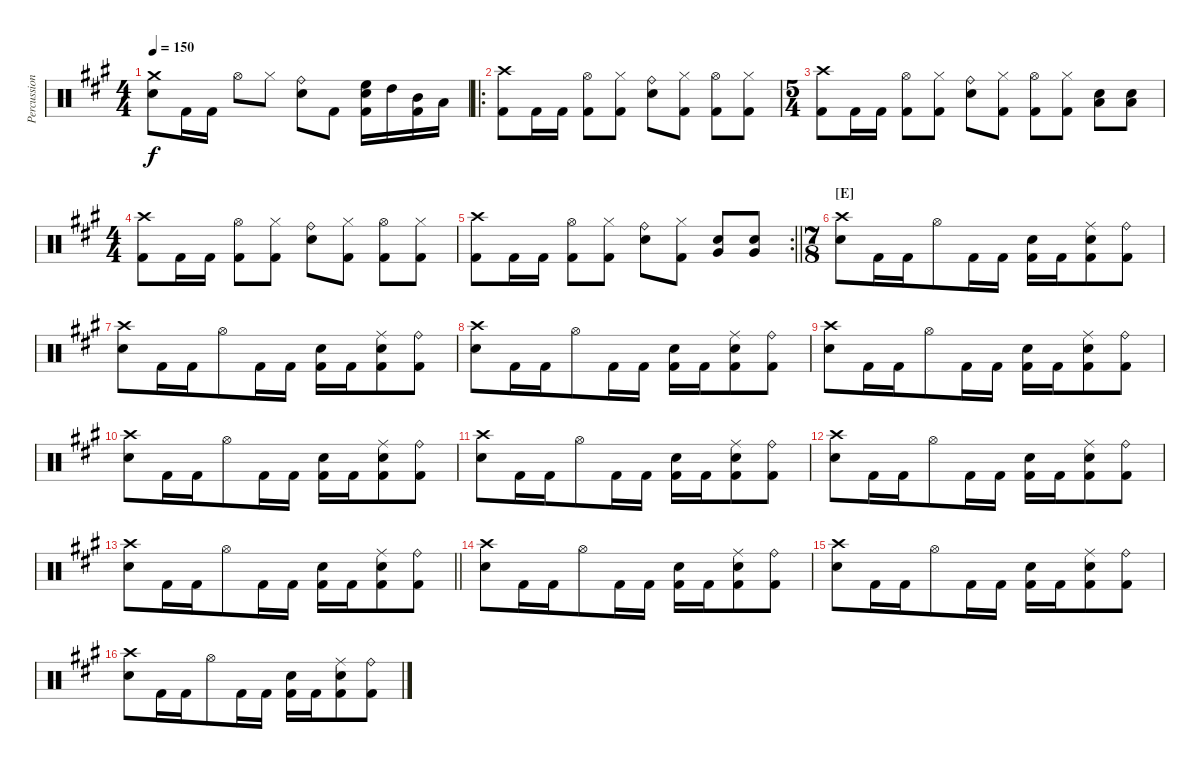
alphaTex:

\track ("Percussion" "Percussion") {instrument percussion}
\staff {score}
\articulation defaults
\ts (4 4)
\tempo 150
\clef neutral
\ks f#minor
("Crash medium (hit)" "Snare (hit) 2").8{dy f} "Kick (hit) 2".16 "Kick (hit) 2".16 "Hi-Hat (open)".8 "Hi-Hat (closed)".8 ("Ride (bell)" "Snare (hit) 2").8 "Kick (hit) 2".8 ("High Floor Tom (hit)" "Snare (hit) 2" "Kick (hit) 2").16 "High Tom (hit)".16 ("Mid Tom (hit)" "Kick (hit) 2").16 "Low Tom (hit)".16 |
\ro
("Crash high (hit)" "Kick (hit) 2").8 "Kick (hit) 2".16 "Kick (hit) 2".16 ("Hi-Hat (open)" "Kick (hit) 2").8 ("Hi-Hat (closed)" "Kick (hit) 2").8 ("Ride (bell)" "Snare (hit) 2").8 ("Hi-Hat (closed)" "Kick (hit) 2").8 ("Hi-Hat (open)" "Kick (hit) 2").8 ("Hi-Hat (closed)" "Kick (hit) 2").8 |
\ts (5 4)
("Crash high (hit)" "Kick (hit) 2").8 "Kick (hit) 2".16 "Kick (hit) 2".16 ("Hi-Hat (open)" "Kick (hit) 2").8 ("Hi-Hat (closed)" "Kick (hit) 2").8 ("Ride (bell)" "Snare (hit) 2").8 ("Hi-Hat (closed)" "Kick (hit) 2").8 ("Hi-Hat (open)" "Kick (hit) 2").8 ("Hi-Hat (closed)" "Kick (hit) 2").8 ("Snare (hit) 2" "Low Floor Tom (hit)").8 ("Snare (hit) 2" "Low Floor Tom (hit)").8 |
\ts (4 4)
("Crash high (hit)" "Kick (hit) 2").8 "Kick (hit) 2".16 "Kick (hit) 2".16 ("Hi-Hat (open)" "Kick (hit) 2").8 ("Hi-Hat (closed)" "Kick (hit) 2").8 ("Ride (bell)" "Snare (hit) 2").8 ("Hi-Hat (closed)" "Kick (hit) 2").8 ("Hi-Hat (open)" "Kick (hit) 2").8 ("Hi-Hat (closed)" "Kick (hit) 2").8 |
\rc 2
\barLineRight lightlight
("Crash high (hit)" "Kick (hit) 2").8 "Kick (hit) 2".16 "Kick (hit) 2".16 ("Hi-Hat (open)" "Kick (hit) 2").8 ("Hi-Hat (closed)" "Kick (hit) 2").8 ("Ride (bell)" "Snare (hit) 2").8 ("Hi-Hat (closed)" "Kick (hit) 2").8 ("Snare (hit) 2" "Very Low Tom (hit)").8 ("Snare (hit) 2" "Very Low Tom (hit)").8 |
\ts (7 8)
\section ("" "[E]")
("Crash high (hit)" "Snare (hit) 2").8 "Kick (hit) 2".16 "Kick (hit) 2".16 "Hi-Hat (open)".8 "Kick (hit) 2".16 "Kick (hit) 2".16 ("Snare (hit) 2" "Kick (hit) 2").16 "Kick (hit) 2".16 ("Ride (middle)" "Snare (hit) 2" "Kick (hit) 2").8 ("Ride (bell)" "Kick (hit) 2").8 |
("Crash high (hit)" "Snare (hit) 2").8 "Kick (hit) 2".16 "Kick (hit) 2".16 "Hi-Hat (open)".8 "Kick (hit) 2".16 "Kick (hit) 2".16 ("Snare (hit) 2" "Kick (hit) 2").16 "Kick (hit) 2".16 ("Ride (middle)" "Snare (hit) 2" "Kick (hit) 2").8 ("Ride (bell)" "Kick (hit) 2").8 |
("Crash high (hit)" "Snare (hit) 2").8 "Kick (hit) 2".16 "Kick (hit) 2".16 "Hi-Hat (open)".8 "Kick (hit) 2".16 "Kick (hit) 2".16 ("Snare (hit) 2" "Kick (hit) 2").16 "Kick (hit) 2".16 ("Ride (middle)" "Snare (hit) 2" "Kick (hit) 2").8 ("Ride (bell)" "Kick (hit) 2").8 |
("Crash high (hit)" "Snare (hit) 2").8 "Kick (hit) 2".16 "Kick (hit) 2".16 "Hi-Hat (open)".8 "Kick (hit) 2".16 "Kick (hit) 2".16 ("Snare (hit) 2" "Kick (hit) 2").16 "Kick (hit) 2".16 ("Ride (middle)" "Snare (hit) 2" "Kick (hit) 2").8 ("Ride (bell)" "Kick (hit) 2").8 |
("Crash high (hit)" "Snare (hit) 2").8 "Kick (hit) 2".16 "Kick (hit) 2".16 "Hi-Hat (open)".8 "Kick (hit) 2".16 "Kick (hit) 2".16 ("Snare (hit) 2" "Kick (hit) 2").16 "Kick (hit) 2".16 ("Ride (middle)" "Snare (hit) 2" "Kick (hit) 2").8 ("Ride (bell)" "Kick (hit) 2").8 |
("Crash high (hit)" "Snare (hit) 2").8 "Kick (hit) 2".16 "Kick (hit) 2".16 "Hi-Hat (open)".8 "Kick (hit) 2".16 "Kick (hit) 2".16 ("Snare (hit) 2" "Kick (hit) 2").16 "Kick (hit) 2".16 ("Ride (middle)" "Snare (hit) 2" "Kick (hit) 2").8 ("Ride (bell)" "Kick (hit) 2").8 |
("Crash high (hit)" "Snare (hit) 2").8 "Kick (hit) 2".16 "Kick (hit) 2".16 "Hi-Hat (open)".8 "Kick (hit) 2".16 "Kick (hit) 2".16 ("Snare (hit) 2" "Kick (hit) 2").16 "Kick (hit) 2".16 ("Ride (middle)" "Snare (hit) 2" "Kick (hit) 2").8 ("Ride (bell)" "Kick (hit) 2").8 |
\barLineRight lightlight
("Crash high (hit)" "Snare (hit) 2").8 "Kick (hit) 2".16 "Kick (hit) 2".16 "Hi-Hat (open)".8 "Kick (hit) 2".16 "Kick (hit) 2".16 ("Snare (hit) 2" "Kick (hit) 2").16 "Kick (hit) 2".16 ("Ride (middle)" "Snare (hit) 2" "Kick (hit) 2").8 ("Ride (bell)" "Kick (hit) 2").8 |
("Crash high (hit)" "Snare (hit) 2").8 "Kick (hit) 2".16 "Kick (hit) 2".16 "Hi-Hat (open)".8 "Kick (hit) 2".16 "Kick (hit) 2".16 ("Snare (hit) 2" "Kick (hit) 2").16 "Kick (hit) 2".16 ("Ride (middle)" "Snare (hit) 2" "Kick (hit) 2").8 ("Ride (bell)" "Kick (hit) 2").8 |
("Crash high (hit)" "Snare (hit) 2").8 "Kick (hit) 2".16 "Kick (hit) 2".16 "Hi-Hat (open)".8 "Kick (hit) 2".16 "Kick (hit) 2".16 ("Snare (hit) 2" "Kick (hit) 2").16 "Kick (hit) 2".16 ("Ride (middle)" "Snare (hit) 2" "Kick (hit) 2").8 ("Ride (bell)" "Kick (hit) 2").8 |
("Crash high (hit)" "Snare (hit) 2").8 "Kick (hit) 2".16 "Kick (hit) 2".16 "Hi-Hat (open)".8 "Kick (hit) 2".16 "Kick (hit) 2".16 ("Snare (hit) 2" "Kick (hit) 2").16 "Kick (hit) 2".16 ("Ride (middle)" "Snare (hit) 2" "Kick (hit) 2").8 ("Ride (bell)" "Kick (hit) 2").8
